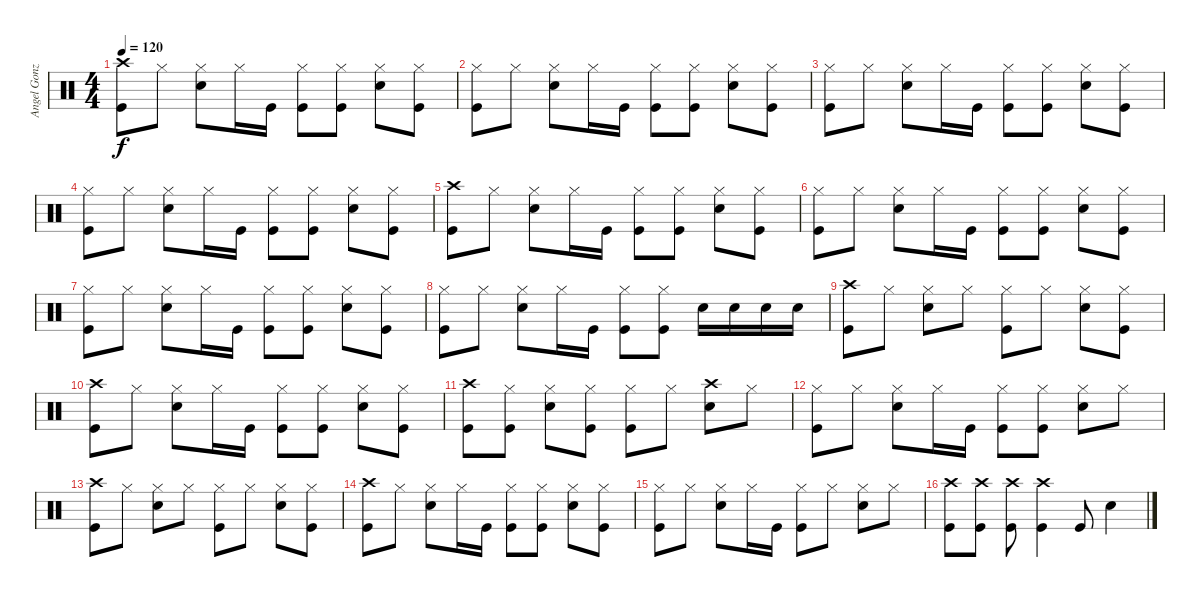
\track ("Angel Gonzalez - Batería" "Angel Gonz") {instrument percussion}
\staff {score}
\articulation defaults
\ts (4 4)
\tempo 120
\clef neutral
\ks c
("Crash high (hit)" "Kick (hit)").8{dy f} "Hi-Hat (closed)".8 ("Hi-Hat (closed)" "Electric Snare (hit)").8 "Hi-Hat (closed)".16 "Kick (hit)".16 ("Hi-Hat (closed)" "Kick (hit)").8 ("Hi-Hat (closed)" "Kick (hit)").8 ("Hi-Hat (closed)" "Electric Snare (hit)").8 ("Hi-Hat (closed)" "Kick (hit)").8 |
("Hi-Hat (closed)" "Kick (hit)").8 "Hi-Hat (closed)".8 ("Hi-Hat (closed)" "Electric Snare (hit)").8 "Hi-Hat (closed)".16 "Kick (hit)".16 ("Hi-Hat (closed)" "Kick (hit)").8 ("Hi-Hat (closed)" "Kick (hit)").8 ("Hi-Hat (closed)" "Electric Snare (hit)").8 ("Hi-Hat (closed)" "Kick (hit)").8 |
("Hi-Hat (closed)" "Kick (hit)").8 "Hi-Hat (closed)".8 ("Hi-Hat (closed)" "Electric Snare (hit)").8 "Hi-Hat (closed)".16 "Kick (hit)".16 ("Hi-Hat (closed)" "Kick (hit)").8 ("Hi-Hat (closed)" "Kick (hit)").8 ("Hi-Hat (closed)" "Electric Snare (hit)").8 ("Hi-Hat (closed)" "Kick (hit)").8 |
("Hi-Hat (closed)" "Kick (hit)").8 "Hi-Hat (closed)".8 ("Hi-Hat (closed)" "Electric Snare (hit)").8 "Hi-Hat (closed)".16 "Kick (hit)".16 ("Hi-Hat (closed)" "Kick (hit)").8 ("Hi-Hat (closed)" "Kick (hit)").8 ("Hi-Hat (closed)" "Electric Snare (hit)").8 ("Hi-Hat (closed)" "Kick (hit)").8 |
("Crash high (hit)" "Kick (hit)").8 "Hi-Hat (closed)".8 ("Hi-Hat (closed)" "Electric Snare (hit)").8 "Hi-Hat (closed)".16 "Kick (hit)".16 ("Hi-Hat (closed)" "Kick (hit)").8 ("Hi-Hat (closed)" "Kick (hit)").8 ("Hi-Hat (closed)" "Electric Snare (hit)").8 ("Hi-Hat (closed)" "Kick (hit)").8 |
("Hi-Hat (closed)" "Kick (hit)").8 "Hi-Hat (closed)".8 ("Hi-Hat (closed)" "Electric Snare (hit)").8 "Hi-Hat (closed)".16 "Kick (hit)".16 ("Hi-Hat (closed)" "Kick (hit)").8 ("Hi-Hat (closed)" "Kick (hit)").8 ("Hi-Hat (closed)" "Electric Snare (hit)").8 ("Hi-Hat (closed)" "Kick (hit)").8 |
("Hi-Hat (closed)" "Kick (hit)").8 "Hi-Hat (closed)".8 ("Hi-Hat (closed)" "Electric Snare (hit)").8 "Hi-Hat (closed)".16 "Kick (hit)".16 ("Hi-Hat (closed)" "Kick (hit)").8 ("Hi-Hat (closed)" "Kick (hit)").8 ("Hi-Hat (closed)" "Electric Snare (hit)").8 ("Hi-Hat (closed)" "Kick (hit)").8 |
("Hi-Hat (closed)" "Kick (hit)").8 "Hi-Hat (closed)".8 ("Hi-Hat (closed)" "Electric Snare (hit)").8 "Hi-Hat (closed)".16 "Kick (hit)".16 ("Hi-Hat (closed)" "Kick (hit)").8 ("Hi-Hat (closed)" "Kick (hit)").8 "Electric Snare (hit)".16 "Electric Snare (hit)".16 "Electric Snare (hit)".16 "Electric Snare (hit)".16 |
("Crash high (hit)" "Kick (hit)").8 "Hi-Hat (closed)".8 ("Hi-Hat (closed)" "Electric Snare (hit)").8 "Hi-Hat (closed)".8 ("Hi-Hat (closed)" "Kick (hit)").8 "Hi-Hat (closed)".8 ("Hi-Hat (closed)" "Electric Snare (hit)").8 ("Hi-Hat (closed)" "Kick (hit)").8 |
("Crash high (hit)" "Kick (hit)").8 "Hi-Hat (closed)".8 ("Hi-Hat (closed)" "Electric Snare (hit)").8 "Hi-Hat (closed)".16 "Kick (hit)".16 ("Hi-Hat (closed)" "Kick (hit)").8 ("Hi-Hat (closed)" "Kick (hit)").8 ("Hi-Hat (closed)" "Electric Snare (hit)").8 ("Hi-Hat (closed)" "Kick (hit)").8 |
("Crash high (hit)" "Kick (hit)").8 ("Hi-Hat (closed)" "Kick (hit)").8 ("Hi-Hat (closed)" "Electric Snare (hit)").8 ("Hi-Hat (closed)" "Kick (hit)").8 ("Hi-Hat (closed)" "Kick (hit)").8 "Hi-Hat (closed)".8 ("Crash high (hit)" "Electric Snare (hit)").8 "Hi-Hat (closed)".8 |
("Hi-Hat (closed)" "Kick (hit)").8 "Hi-Hat (closed)".8 ("Hi-Hat (closed)" "Electric Snare (hit)").8 "Hi-Hat (closed)".16 "Kick (hit)".16 ("Hi-Hat (closed)" "Kick (hit)").8 ("Hi-Hat (closed)" "Kick (hit)").8 ("Hi-Hat (closed)" "Electric Snare (hit)").8 "Hi-Hat (closed)".8 |
("Crash high (hit)" "Kick (hit)").8 "Hi-Hat (closed)".8 ("Hi-Hat (closed)" "Electric Snare (hit)").8 "Hi-Hat (closed)".8 ("Hi-Hat (closed)" "Kick (hit)").8 "Hi-Hat (closed)".8 ("Hi-Hat (closed)" "Electric Snare (hit)").8 ("Hi-Hat (closed)" "Kick (hit)").8 |
("Crash high (hit)" "Kick (hit)").8 "Hi-Hat (closed)".8 ("Hi-Hat (closed)" "Electric Snare (hit)").8 "Hi-Hat (closed)".16 "Kick (hit)".16 ("Hi-Hat (closed)" "Kick (hit)").8 ("Hi-Hat (closed)" "Kick (hit)").8 ("Hi-Hat (closed)" "Electric Snare (hit)").8 ("Hi-Hat (closed)" "Kick (hit)").8 |
("Hi-Hat (closed)" "Kick (hit)").8 "Hi-Hat (closed)".8 ("Hi-Hat (closed)" "Electric Snare (hit)").8 "Hi-Hat (closed)".16 "Kick (hit)".16 ("Hi-Hat (closed)" "Kick (hit)").8 "Hi-Hat (closed)".8 ("Hi-Hat (closed)" "Electric Snare (hit)").8 "Hi-Hat (closed)".8 |
("Crash high (hit)" "Kick (hit)").8 ("Crash high (hit)" "Kick (hit)").8 ("Crash high (hit)" "Kick (hit)").8 ("Crash high (hit)" "Kick (hit)").4 "Kick (hit)".8 "Electric Snare (hit)".4
